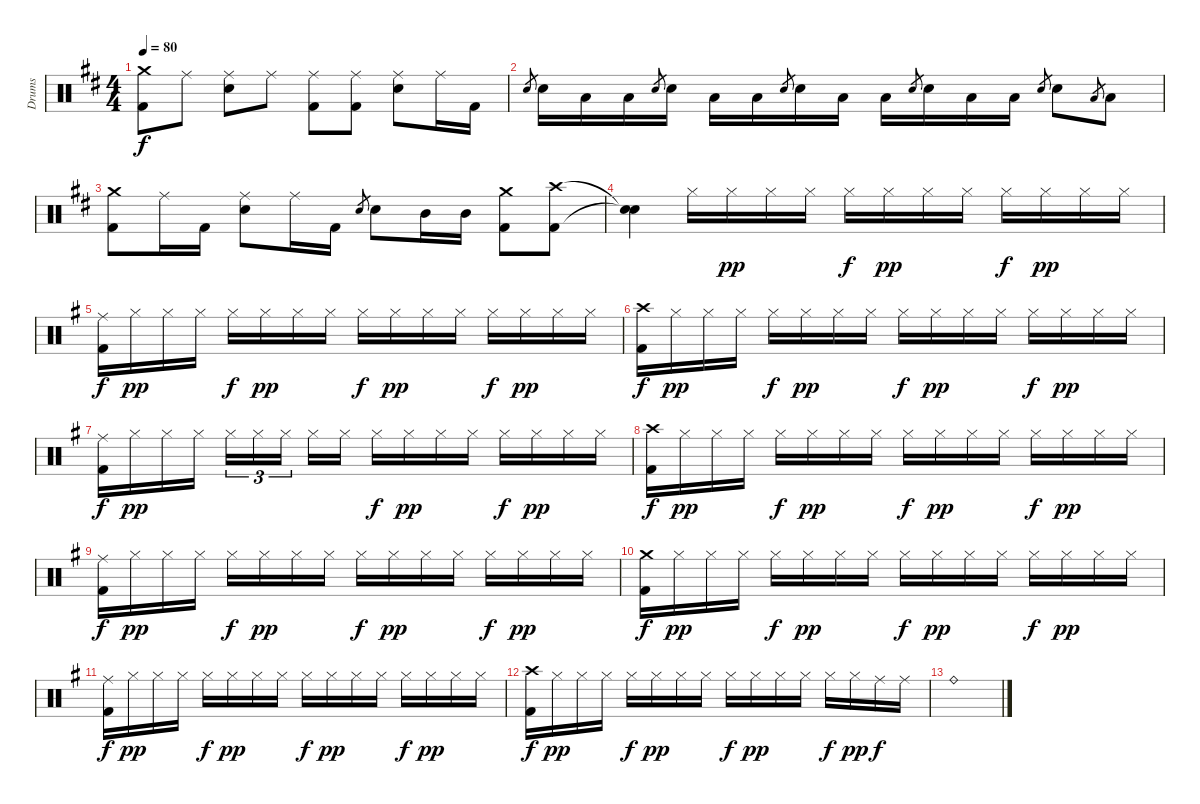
\track ("Drums" "Drums") {instrument percussion}
\staff {score}
\articulation defaults
\ts (4 4)
\tempo 80
\clef neutral
\ks d
("Crash medium (hit)" "Kick (hit) 2").8{dy f} "Ride (middle)".8 ("Ride (middle)" "Snare (hit) 2").8 "Ride (middle)".8 ("Ride (middle)" "Kick (hit) 2").8 ("Ride (middle)" "Kick (hit) 2").8 ("Ride (middle)" "Snare (hit) 2").8 "Ride (middle)".16 "Kick (hit) 2".16 |
"Snare (hit) 2".8{gr} "Snare (hit) 2".16 "Low Tom (hit)".16 "Low Tom (hit)".16 "Snare (hit) 2".8{gr} "Snare (hit) 2".16 "Low Tom (hit)".16 "Low Tom (hit)".16 "Snare (hit) 2".8{gr} "Snare (hit) 2".16 "Low Tom (hit)".16 "Low Tom (hit)".16 "Snare (hit) 2".8{gr} "Snare (hit) 2".16 "Low Tom (hit)".16 "Low Tom (hit)".16 "Snare (hit) 2".8{gr} "Snare (hit) 2".8 "Low Tom (hit)".8{gr} "Low Tom (hit)".8 |
("Crash medium (hit)" "Kick (hit) 2").8 "Ride (middle)".16 "Kick (hit) 2".16 ("Ride (middle)" "Snare (hit) 2").8 "Ride (middle)".16 "Kick (hit) 2".16 "Snare (hit) 2".8{gr} "Snare (hit) 2".8 "Mid Tom (hit)".16 "Mid Tom (hit)".16 ("Crash medium (hit)" "Kick (hit) 2").8 ("Crash high (hit)" "Kick (hit) 2").8 |
("Snare (hit)"{t} "Snare (hit)"{t}).4 "Hi-Hat (closed)".16 "Hi-Hat (closed)".16{dy pp} "Hi-Hat (closed)".16 "Hi-Hat (closed)".16 "Hi-Hat (closed)".16{dy f} "Hi-Hat (closed)".16{dy pp} "Hi-Hat (closed)".16 "Hi-Hat (closed)".16 "Hi-Hat (closed)".16{dy f} "Hi-Hat (closed)".16{dy pp} "Hi-Hat (closed)".16 "Hi-Hat (closed)".16 |
\ks g
("Ride (middle)" "Kick (hit) 2").16{dy f} "Hi-Hat (closed)".16{dy pp} "Hi-Hat (closed)".16 "Hi-Hat (closed)".16 "Hi-Hat (closed)".16{dy f} "Hi-Hat (closed)".16{dy pp} "Hi-Hat (closed)".16 "Hi-Hat (closed)".16 "Hi-Hat (closed)".16{dy f} "Hi-Hat (closed)".16{dy pp} "Hi-Hat (closed)".16 "Hi-Hat (closed)".16 "Hi-Hat (closed)".16{dy f} "Hi-Hat (closed)".16{dy pp} "Hi-Hat (closed)".16 "Hi-Hat (closed)".16 |
("Crash high (hit)" "Kick (hit) 2").16{dy f} "Hi-Hat (closed)".16{dy pp} "Hi-Hat (closed)".16 "Hi-Hat (closed)".16 "Hi-Hat (closed)".16{dy f} "Hi-Hat (closed)".16{dy pp} "Hi-Hat (closed)".16 "Hi-Hat (closed)".16 "Hi-Hat (closed)".16{dy f} "Hi-Hat (closed)".16{dy pp} "Hi-Hat (closed)".16 "Hi-Hat (closed)".16 "Hi-Hat (closed)".16{dy f} "Hi-Hat (closed)".16{dy pp} "Hi-Hat (closed)".16 "Hi-Hat (closed)".16 |
("Ride (middle)" "Kick (hit) 2").16{dy f} "Hi-Hat (closed)".16{dy pp} "Hi-Hat (closed)".16 "Hi-Hat (closed)".16 "Hi-Hat (closed)".16{tu (3 2)} "Hi-Hat (closed)".16{tu (3 2)} "Hi-Hat (closed)".16{tu (3 2)} "Hi-Hat (closed)".16 "Hi-Hat (closed)".16 "Hi-Hat (closed)".16{dy f} "Hi-Hat (closed)".16{dy pp} "Hi-Hat (closed)".16 "Hi-Hat (closed)".16 "Hi-Hat (closed)".16{dy f} "Hi-Hat (closed)".16{dy pp} "Hi-Hat (closed)".16 "Hi-Hat (closed)".16 |
("Crash high (hit)" "Kick (hit) 2").16{dy f} "Hi-Hat (closed)".16{dy pp} "Hi-Hat (closed)".16 "Hi-Hat (closed)".16 "Hi-Hat (closed)".16{dy f} "Hi-Hat (closed)".16{dy pp} "Hi-Hat (closed)".16 "Hi-Hat (closed)".16 "Hi-Hat (closed)".16{dy f} "Hi-Hat (closed)".16{dy pp} "Hi-Hat (closed)".16 "Hi-Hat (closed)".16 "Hi-Hat (closed)".16{dy f} "Hi-Hat (closed)".16{dy pp} "Hi-Hat (closed)".16 "Hi-Hat (closed)".16 |
("Ride (middle)" "Kick (hit) 2").16{dy f} "Hi-Hat (closed)".16{dy pp} "Hi-Hat (closed)".16 "Hi-Hat (closed)".16 "Hi-Hat (closed)".16{dy f} "Hi-Hat (closed)".16{dy pp} "Hi-Hat (closed)".16 "Hi-Hat (closed)".16 "Hi-Hat (closed)".16{dy f} "Hi-Hat (closed)".16{dy pp} "Hi-Hat (closed)".16 "Hi-Hat (closed)".16 "Hi-Hat (closed)".16{dy f} "Hi-Hat (closed)".16{dy pp} "Hi-Hat (closed)".16 "Hi-Hat (closed)".16 |
("Crash medium (hit)" "Kick (hit) 2").16{dy f} "Hi-Hat (closed)".16{dy pp} "Hi-Hat (closed)".16 "Hi-Hat (closed)".16 "Hi-Hat (closed)".16{dy f} "Hi-Hat (closed)".16{dy pp} "Hi-Hat (closed)".16 "Hi-Hat (closed)".16 "Hi-Hat (closed)".16{dy f} "Hi-Hat (closed)".16{dy pp} "Hi-Hat (closed)".16 "Hi-Hat (closed)".16 "Hi-Hat (closed)".16{dy f} "Hi-Hat (closed)".16{dy pp} "Hi-Hat (closed)".16 "Hi-Hat (closed)".16 |
("Ride (middle)" "Kick (hit) 2").16{dy f} "Hi-Hat (closed)".16{dy pp} "Hi-Hat (closed)".16 "Hi-Hat (closed)".16 "Hi-Hat (closed)".16{dy f} "Hi-Hat (closed)".16{dy pp} "Hi-Hat (closed)".16 "Hi-Hat (closed)".16 "Hi-Hat (closed)".16{dy f} "Hi-Hat (closed)".16{dy pp} "Hi-Hat (closed)".16 "Hi-Hat (closed)".16 "Hi-Hat (closed)".16{dy f} "Hi-Hat (closed)".16{dy pp} "Hi-Hat (closed)".16 "Hi-Hat (closed)".16 |
("Crash high (hit)" "Kick (hit) 2").16{dy f} "Hi-Hat (closed)".16{dy pp} "Hi-Hat (closed)".16 "Hi-Hat (closed)".16 "Hi-Hat (closed)".16{dy f} "Hi-Hat (closed)".16{dy pp} "Hi-Hat (closed)".16 "Hi-Hat (closed)".16 "Hi-Hat (closed)".16{dy f} "Hi-Hat (closed)".16{dy pp} "Hi-Hat (closed)".16 "Hi-Hat (closed)".16 "Hi-Hat (closed)".16{dy f} "Hi-Hat (closed)".16{dy pp} "Ride (middle)".16{dy f} "Ride (middle)".16 |
"Ride (bell)".1
